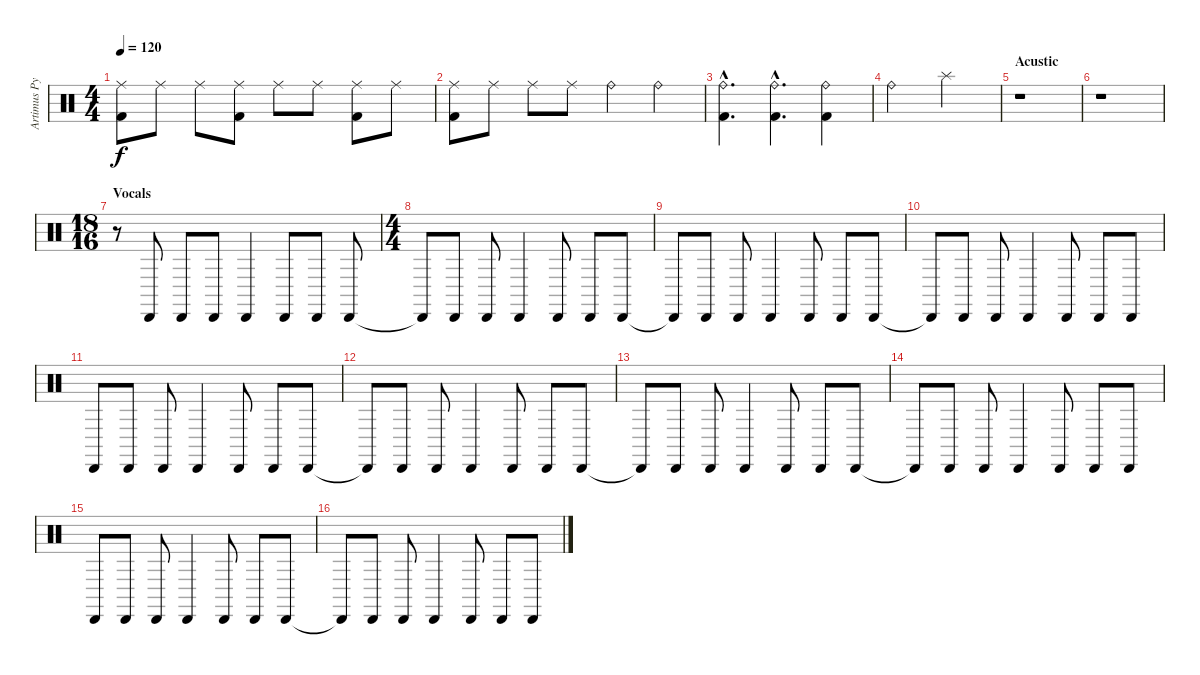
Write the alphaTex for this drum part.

\track ("Artimus Pyle" "Artimus Py") {instrument percussion}
\staff {score}
\articulation defaults
\ts (4 4)
\tempo 120
\clef neutral
\ks c
("Ride (middle)" "Kick (hit) 2").8{dy f} "Ride (middle)".8 "Ride (middle)".8 ("Ride (middle)" "Kick (hit) 2").8 "Ride (middle)".8 "Ride (middle)".8 ("Ride (middle)" "Kick (hit) 2").8 "Ride (middle)".8 |
("Ride (middle)" "Kick (hit) 2").8 "Ride (middle)".8 "Ride (middle)".8 "Ride (middle)".8 "Ride (bell)".4 "Ride (bell)".4 |
("Ride (bell)"{hac} "Kick (hit) 2"{hac}).4{d} ("Ride (bell)"{hac} "Kick (hit) 2"{hac}).4{d} ("Ride (bell)" "Kick (hit) 2").4 |
"Ride (bell)".2 "Splash (hit)".2 |
\section ("" "Acustic ")
r.1 |
r.1 |
\ts (18 16)
\section ("" "Vocals")
r.8 "Cabasa (hit)".8 "Cabasa (hit)".8 "Cabasa (hit)".8 "Cabasa (hit)".4 "Cabasa (hit)".8 "Cabasa (hit)".8 "Cabasa (hit)".8 |
\ts (4 4)
"Cabasa (hit)"{t}.8 "Cabasa (hit)".8 "Cabasa (hit)".8 "Cabasa (hit)".4 "Cabasa (hit)".8 "Cabasa (hit)".8 "Cabasa (hit)".8 |
"Cabasa (hit)"{t}.8 "Cabasa (hit)".8 "Cabasa (hit)".8 "Cabasa (hit)".4 "Cabasa (hit)".8 "Cabasa (hit)".8 "Cabasa (hit)".8 |
"Cabasa (hit)"{t}.8 "Cabasa (hit)".8 "Cabasa (hit)".8 "Cabasa (hit)".4 "Cabasa (hit)".8 "Cabasa (hit)".8 "Cabasa (hit)".8 |
"Cabasa (hit)".8 "Cabasa (hit)".8 "Cabasa (hit)".8 "Cabasa (hit)".4 "Cabasa (hit)".8 "Cabasa (hit)".8 "Cabasa (hit)".8 |
"Cabasa (hit)"{t}.8 "Cabasa (hit)".8 "Cabasa (hit)".8 "Cabasa (hit)".4 "Cabasa (hit)".8 "Cabasa (hit)".8 "Cabasa (hit)".8 |
"Cabasa (hit)"{t}.8 "Cabasa (hit)".8 "Cabasa (hit)".8 "Cabasa (hit)".4 "Cabasa (hit)".8 "Cabasa (hit)".8 "Cabasa (hit)".8 |
"Cabasa (hit)"{t}.8 "Cabasa (hit)".8 "Cabasa (hit)".8 "Cabasa (hit)".4 "Cabasa (hit)".8 "Cabasa (hit)".8 "Cabasa (hit)".8 |
"Cabasa (hit)".8 "Cabasa (hit)".8 "Cabasa (hit)".8 "Cabasa (hit)".4 "Cabasa (hit)".8 "Cabasa (hit)".8 "Cabasa (hit)".8 |
"Cabasa (hit)"{t}.8 "Cabasa (hit)".8 "Cabasa (hit)".8 "Cabasa (hit)".4 "Cabasa (hit)".8 "Cabasa (hit)".8 "Cabasa (hit)".8
